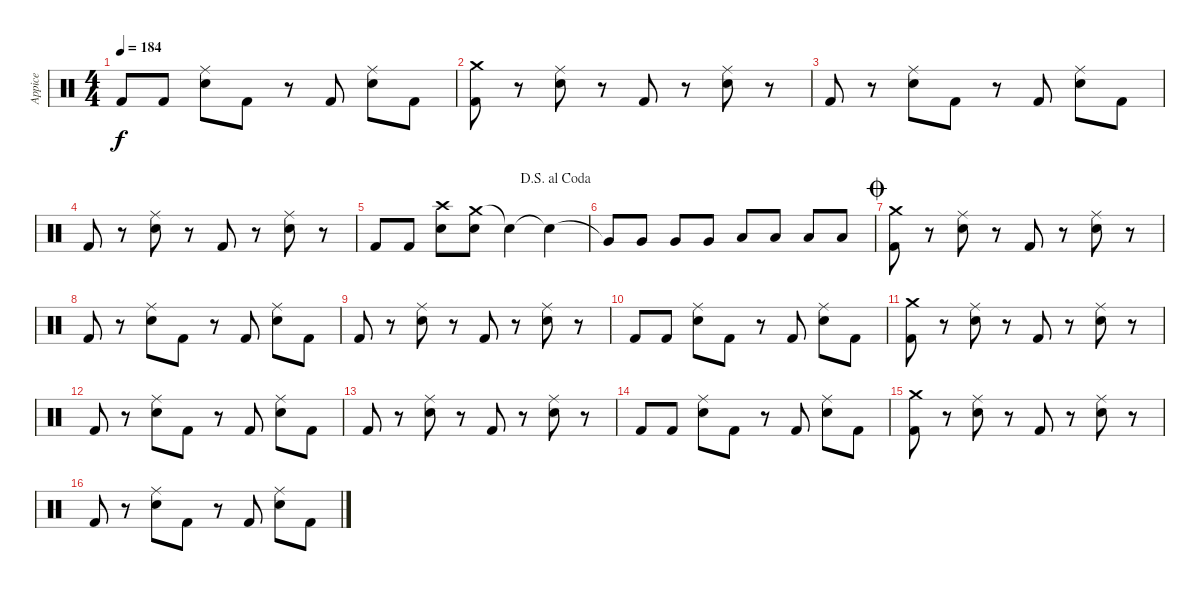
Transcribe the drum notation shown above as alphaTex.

\track ("Appice" "Appice") {instrument percussion}
\staff {score}
\articulation defaults
\ts (4 4)
\tempo 184
\clef neutral
\ks c "Kick (hit) 2".8{dy f} "Kick (hit) 2".8
("Ride (middle)" "Snare (hit) 2").8 "Kick (hit) 2".8 r.8 "Kick (hit) 2".8 ("Ride (middle)" "Snare (hit) 2").8 "Kick (hit) 2".8 |
("Crash medium (hit)" "Kick (hit) 2").8 r.8 ("Ride (middle)" "Snare (hit) 2").8 r.8 "Kick (hit) 2".8 r.8 ("Ride (middle)" "Snare (hit) 2").8 r.8 |
"Kick (hit) 2".8 r.8 ("Ride (middle)" "Snare (hit) 2").8 "Kick (hit) 2".8 r.8 "Kick (hit) 2".8 ("Ride (middle)" "Snare (hit) 2").8 "Kick (hit) 2".8 |
"Kick (hit) 2".8 r.8 ("Ride (middle)" "Snare (hit) 2").8 r.8 "Kick (hit) 2".8 r.8 ("Ride (middle)" "Snare (hit) 2").8 r.8 |
\jump dalsegnoalcoda "Kick (hit) 2".8 "Kick (hit) 2".8
("Crash high (hit)" "Snare (hit) 2").8 ("Crash medium (hit)" "Snare (hit) 2").8 "Snare (hit)"{t}.4 "Snare (hit)"{t}.4 |
"Very Low Tom (hit)"{t}.8 "Very Low Tom (hit)".8 "Very Low Tom (hit)".8 "Very Low Tom (hit)".8 "Low Tom (hit)".8 "Low Tom (hit)".8 "Low Floor Tom (hit)".8 "Low Floor Tom (hit)".8 |
\jump coda
("Crash medium (hit)" "Kick (hit) 2").8 r.8 ("Ride (middle)" "Snare (hit) 2").8 r.8 "Kick (hit) 2".8 r.8 ("Ride (middle)" "Snare (hit) 2").8 r.8 |
"Kick (hit) 2".8 r.8 ("Ride (middle)" "Snare (hit) 2").8 "Kick (hit) 2".8 r.8 "Kick (hit) 2".8 ("Ride (middle)" "Snare (hit) 2").8 "Kick (hit) 2".8 |
"Kick (hit) 2".8 r.8 ("Ride (middle)" "Snare (hit) 2").8 r.8 "Kick (hit) 2".8 r.8 ("Ride (middle)" "Snare (hit) 2").8 r.8 |
"Kick (hit) 2".8 "Kick (hit) 2".8 ("Ride (middle)" "Snare (hit) 2").8 "Kick (hit) 2".8 r.8 "Kick (hit) 2".8 ("Ride (middle)" "Snare (hit) 2").8 "Kick (hit) 2".8 |
("Crash medium (hit)" "Kick (hit) 2").8 r.8 ("Ride (middle)" "Snare (hit) 2").8 r.8 "Kick (hit) 2".8 r.8 ("Ride (middle)" "Snare (hit) 2").8 r.8 |
"Kick (hit) 2".8 r.8 ("Ride (middle)" "Snare (hit) 2").8 "Kick (hit) 2".8 r.8 "Kick (hit) 2".8 ("Ride (middle)" "Snare (hit) 2").8 "Kick (hit) 2".8 |
"Kick (hit) 2".8 r.8 ("Ride (middle)" "Snare (hit) 2").8 r.8 "Kick (hit) 2".8 r.8 ("Ride (middle)" "Snare (hit) 2").8 r.8 |
"Kick (hit) 2".8 "Kick (hit) 2".8 ("Ride (middle)" "Snare (hit) 2").8 "Kick (hit) 2".8 r.8 "Kick (hit) 2".8 ("Ride (middle)" "Snare (hit) 2").8 "Kick (hit) 2".8 |
("Crash medium (hit)" "Kick (hit) 2").8 r.8 ("Ride (middle)" "Snare (hit) 2").8 r.8 "Kick (hit) 2".8 r.8 ("Ride (middle)" "Snare (hit) 2").8 r.8 |
"Kick (hit) 2".8 r.8 ("Ride (middle)" "Snare (hit) 2").8 "Kick (hit) 2".8 r.8 "Kick (hit) 2".8 ("Ride (middle)" "Snare (hit) 2").8 "Kick (hit) 2".8
